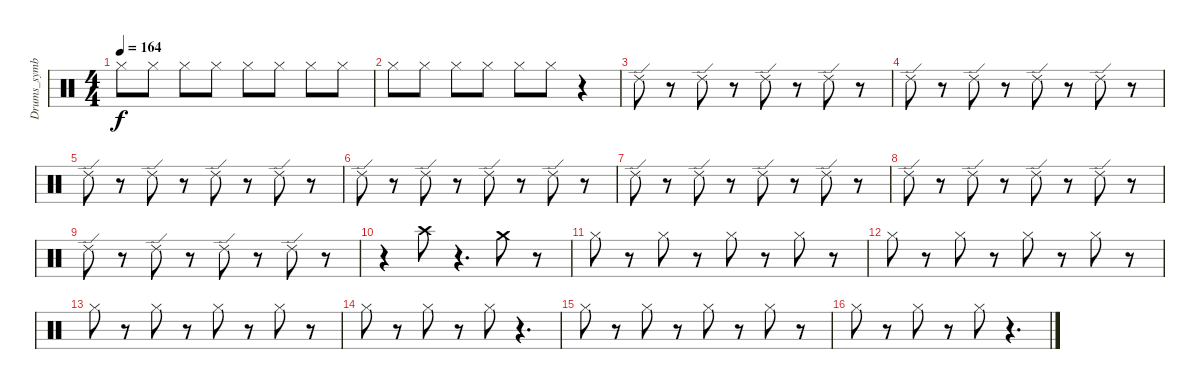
\track ("Drums_symbal" "Drums_symb") {instrument percussion}
\staff {score}
\articulation defaults
\ts (4 4)
\tempo 164
\clef neutral
\ks c "Hi-Hat (closed)".8{dy f} "Hi-Hat (closed)".8 "Hi-Hat (closed)".8 "Hi-Hat (closed)".8 "Hi-Hat (closed)".8 "Hi-Hat (closed)".8 "Hi-Hat (closed)".8 "Hi-Hat (closed)".8
|
"Hi-Hat (closed)".8 "Hi-Hat (closed)".8 "Hi-Hat (closed)".8 "Hi-Hat (closed)".8 "Hi-Hat (closed)".8 "Hi-Hat (closed)".8 r.4 |
"Ride (edge) 2".8 r.8 "Ride (edge) 2".8 r.8 "Ride (edge) 2".8 r.8 "Ride (edge) 2".8 r.8 |
"Ride (edge) 2".8 r.8 "Ride (edge) 2".8 r.8 "Ride (edge) 2".8 r.8 "Ride (edge) 2".8 r.8 |
"Ride (edge) 2".8 r.8 "Ride (edge) 2".8 r.8 "Ride (edge) 2".8 r.8 "Ride (edge) 2".8 r.8 |
"Ride (edge) 2".8 r.8 "Ride (edge) 2".8 r.8 "Ride (edge) 2".8 r.8 "Ride (edge) 2".8 r.8 |
"Ride (edge) 2".8 r.8 "Ride (edge) 2".8 r.8 "Ride (edge) 2".8 r.8 "Ride (edge) 2".8 r.8 |
"Ride (edge) 2".8 r.8 "Ride (edge) 2".8 r.8 "Ride (edge) 2".8 r.8 "Ride (edge) 2".8 r.8 |
"Ride (edge) 2".8 r.8 "Ride (edge) 2".8 r.8 "Ride (edge) 2".8 r.8 "Ride (edge) 2".8 r.8 |
r.4 "Crash high (hit)".8 r.4{d} "Crash medium (hit)".8 r.8 |
"Hi-Hat (closed)".8 r.8 "Hi-Hat (closed)".8 r.8 "Hi-Hat (closed)".8 r.8 "Hi-Hat (closed)".8 r.8 |
"Hi-Hat (closed)".8 r.8 "Hi-Hat (closed)".8 r.8 "Hi-Hat (closed)".8 r.8 "Hi-Hat (closed)".8 r.8 |
"Hi-Hat (closed)".8 r.8 "Hi-Hat (closed)".8 r.8 "Hi-Hat (closed)".8 r.8 "Hi-Hat (closed)".8 r.8 |
"Hi-Hat (closed)".8 r.8 "Hi-Hat (closed)".8 r.8 "Hi-Hat (closed)".8 r.4{d} |
"Hi-Hat (closed)".8 r.8 "Hi-Hat (closed)".8 r.8 "Hi-Hat (closed)".8 r.8 "Hi-Hat (closed)".8 r.8 |
"Hi-Hat (closed)".8 r.8 "Hi-Hat (closed)".8 r.8 "Hi-Hat (closed)".8 r.4{d}
